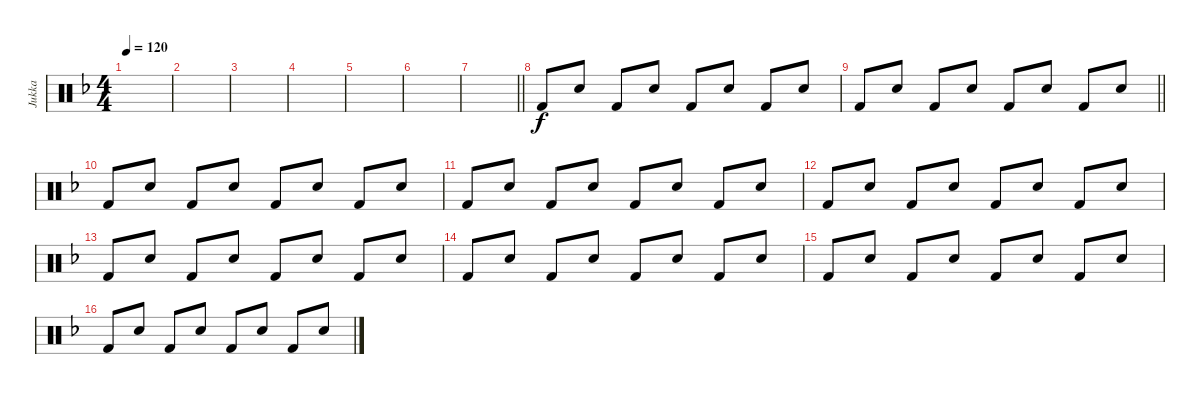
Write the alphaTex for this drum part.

\track ("Jukka" "Jukka") {instrument percussion}
\staff {score}
\articulation defaults
\ts (4 4)
\tempo 120
\clef neutral
\ks f
|
|
|
|
|
|
\barLineRight lightlight
|
\section ("" "")
"Kick (hit) 2".8 "Electric Snare (hit)".8 "Kick (hit) 2".8 "Electric Snare (hit)".8 "Kick (hit) 2".8 "Electric Snare (hit)".8 "Kick (hit) 2".8 "Electric Snare (hit)".8 |
\barLineRight lightlight "Kick (hit) 2".8 "Electric Snare (hit)".8 "Kick (hit) 2".8 "Electric Snare (hit)".8 "Kick (hit) 2".8 "Electric Snare (hit)".8 "Kick (hit) 2".8 "Electric Snare (hit)".8
|
\section ("" "")
"Kick (hit) 2".8 "Electric Snare (hit)".8 "Kick (hit) 2".8 "Electric Snare (hit)".8 "Kick (hit) 2".8 "Electric Snare (hit)".8 "Kick (hit) 2".8 "Electric Snare (hit)".8 |
"Kick (hit) 2".8 "Electric Snare (hit)".8 "Kick (hit) 2".8 "Electric Snare (hit)".8 "Kick (hit) 2".8 "Electric Snare (hit)".8 "Kick (hit) 2".8 "Electric Snare (hit)".8 |
"Kick (hit) 2".8 "Electric Snare (hit)".8 "Kick (hit) 2".8 "Electric Snare (hit)".8 "Kick (hit) 2".8 "Electric Snare (hit)".8 "Kick (hit) 2".8 "Electric Snare (hit)".8 |
"Kick (hit) 2".8 "Electric Snare (hit)".8 "Kick (hit) 2".8 "Electric Snare (hit)".8 "Kick (hit) 2".8 "Electric Snare (hit)".8 "Kick (hit) 2".8 "Electric Snare (hit)".8 |
"Kick (hit) 2".8 "Electric Snare (hit)".8 "Kick (hit) 2".8 "Electric Snare (hit)".8 "Kick (hit) 2".8 "Electric Snare (hit)".8 "Kick (hit) 2".8 "Electric Snare (hit)".8 |
"Kick (hit) 2".8 "Electric Snare (hit)".8 "Kick (hit) 2".8 "Electric Snare (hit)".8 "Kick (hit) 2".8 "Electric Snare (hit)".8 "Kick (hit) 2".8 "Electric Snare (hit)".8 |
"Kick (hit) 2".8 "Electric Snare (hit)".8 "Kick (hit) 2".8 "Electric Snare (hit)".8 "Kick (hit) 2".8 "Electric Snare (hit)".8 "Kick (hit) 2".8 "Electric Snare (hit)".8
